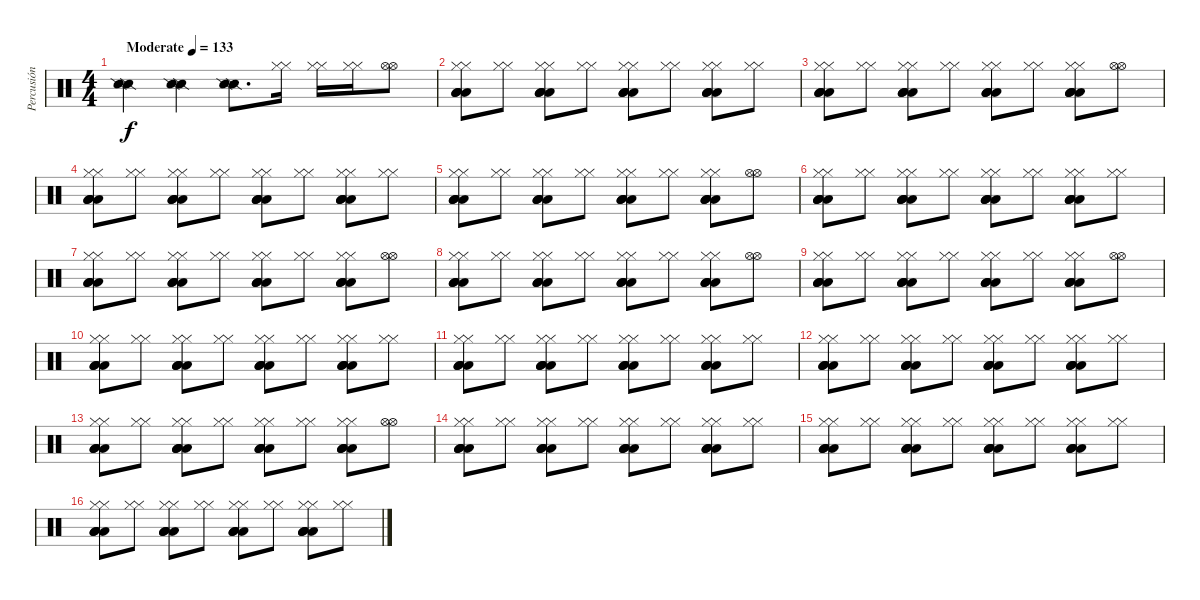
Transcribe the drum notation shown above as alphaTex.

\track ("Percusión" "Percusión") {instrument percussion}
\staff {score}
\articulation defaults
\ts (4 4)
\tempo (133 "Moderate")
\clef neutral
\ks c
("Snare (side stick) 2" "Snare (side stick) 2").4{dy f} ("Snare (side stick) 2" "Snare (side stick) 2").4 ("Snare (side stick) 2" "Snare (side stick) 2").8{d} ("Hi-Hat (closed)" "Hi-Hat (closed)").16 ("Hi-Hat (closed)" "Hi-Hat (closed)").16 ("Hi-Hat (closed)" "Hi-Hat (closed)").16 ("Hi-Hat (open)" "Hi-Hat (open)").8 |
("Hi-Hat (closed)" "Hi-Hat (closed)" "Low Tom (hit)" "Low Tom (hit)" "Low Tom (hit)" "Low Tom (hit)").8 ("Hi-Hat (closed)" "Hi-Hat (closed)").8 ("Hi-Hat (closed)" "Hi-Hat (closed)" "Low Tom (hit)" "Low Tom (hit)" "Low Tom (hit)" "Low Tom (hit)").8 ("Hi-Hat (closed)" "Hi-Hat (closed)").8 ("Hi-Hat (closed)" "Hi-Hat (closed)" "Low Tom (hit)" "Low Tom (hit)" "Low Tom (hit)" "Low Tom (hit)").8 ("Hi-Hat (closed)" "Hi-Hat (closed)").8 ("Hi-Hat (closed)" "Hi-Hat (closed)" "Low Tom (hit)" "Low Tom (hit)" "Low Tom (hit)" "Low Tom (hit)").8 ("Hi-Hat (closed)" "Hi-Hat (closed)").8 |
("Hi-Hat (closed)" "Hi-Hat (closed)" "Low Tom (hit)" "Low Tom (hit)" "Low Tom (hit)" "Low Tom (hit)").8 ("Hi-Hat (closed)" "Hi-Hat (closed)").8 ("Hi-Hat (closed)" "Hi-Hat (closed)" "Low Tom (hit)" "Low Tom (hit)" "Low Tom (hit)" "Low Tom (hit)").8 ("Hi-Hat (closed)" "Hi-Hat (closed)").8 ("Hi-Hat (closed)" "Hi-Hat (closed)" "Low Tom (hit)" "Low Tom (hit)" "Low Tom (hit)" "Low Tom (hit)").8 ("Hi-Hat (closed)" "Hi-Hat (closed)").8 ("Hi-Hat (closed)" "Hi-Hat (closed)" "Low Tom (hit)" "Low Tom (hit)" "Low Tom (hit)" "Low Tom (hit)").8 ("Hi-Hat (open)" "Hi-Hat (open)").8 |
("Hi-Hat (closed)" "Hi-Hat (closed)" "Low Tom (hit)" "Low Tom (hit)" "Low Tom (hit)" "Low Tom (hit)").8 ("Hi-Hat (closed)" "Hi-Hat (closed)").8 ("Hi-Hat (closed)" "Hi-Hat (closed)" "Low Tom (hit)" "Low Tom (hit)" "Low Tom (hit)" "Low Tom (hit)").8 ("Hi-Hat (closed)" "Hi-Hat (closed)").8 ("Hi-Hat (closed)" "Hi-Hat (closed)" "Low Tom (hit)" "Low Tom (hit)" "Low Tom (hit)" "Low Tom (hit)").8 ("Hi-Hat (closed)" "Hi-Hat (closed)").8 ("Hi-Hat (closed)" "Hi-Hat (closed)" "Low Tom (hit)" "Low Tom (hit)" "Low Tom (hit)" "Low Tom (hit)").8 ("Hi-Hat (closed)" "Hi-Hat (closed)").8 |
("Hi-Hat (closed)" "Hi-Hat (closed)" "Low Tom (hit)" "Low Tom (hit)" "Low Tom (hit)" "Low Tom (hit)").8 ("Hi-Hat (closed)" "Hi-Hat (closed)").8 ("Hi-Hat (closed)" "Hi-Hat (closed)" "Low Tom (hit)" "Low Tom (hit)" "Low Tom (hit)" "Low Tom (hit)").8 ("Hi-Hat (closed)" "Hi-Hat (closed)").8 ("Hi-Hat (closed)" "Hi-Hat (closed)" "Low Tom (hit)" "Low Tom (hit)" "Low Tom (hit)" "Low Tom (hit)").8 ("Hi-Hat (closed)" "Hi-Hat (closed)").8 ("Hi-Hat (closed)" "Hi-Hat (closed)" "Low Tom (hit)" "Low Tom (hit)" "Low Tom (hit)" "Low Tom (hit)").8 ("Hi-Hat (open)" "Hi-Hat (open)").8 |
("Hi-Hat (closed)" "Hi-Hat (closed)" "Low Tom (hit)" "Low Tom (hit)" "Low Tom (hit)" "Low Tom (hit)").8 ("Hi-Hat (closed)" "Hi-Hat (closed)").8 ("Hi-Hat (closed)" "Hi-Hat (closed)" "Low Tom (hit)" "Low Tom (hit)" "Low Tom (hit)" "Low Tom (hit)").8 ("Hi-Hat (closed)" "Hi-Hat (closed)").8 ("Hi-Hat (closed)" "Hi-Hat (closed)" "Low Tom (hit)" "Low Tom (hit)" "Low Tom (hit)" "Low Tom (hit)").8 ("Hi-Hat (closed)" "Hi-Hat (closed)").8 ("Hi-Hat (closed)" "Hi-Hat (closed)" "Low Tom (hit)" "Low Tom (hit)" "Low Tom (hit)" "Low Tom (hit)").8 ("Hi-Hat (closed)" "Hi-Hat (closed)").8 |
("Hi-Hat (closed)" "Hi-Hat (closed)" "Low Tom (hit)" "Low Tom (hit)" "Low Tom (hit)" "Low Tom (hit)").8 ("Hi-Hat (closed)" "Hi-Hat (closed)").8 ("Hi-Hat (closed)" "Hi-Hat (closed)" "Low Tom (hit)" "Low Tom (hit)" "Low Tom (hit)" "Low Tom (hit)").8 ("Hi-Hat (closed)" "Hi-Hat (closed)").8 ("Hi-Hat (closed)" "Hi-Hat (closed)" "Low Tom (hit)" "Low Tom (hit)" "Low Tom (hit)" "Low Tom (hit)").8 ("Hi-Hat (closed)" "Hi-Hat (closed)").8 ("Hi-Hat (closed)" "Hi-Hat (closed)" "Low Tom (hit)" "Low Tom (hit)" "Low Tom (hit)" "Low Tom (hit)").8 ("Hi-Hat (open)" "Hi-Hat (open)").8 |
("Hi-Hat (closed)" "Hi-Hat (closed)" "Low Tom (hit)" "Low Tom (hit)" "Low Tom (hit)" "Low Tom (hit)").8 ("Hi-Hat (closed)" "Hi-Hat (closed)").8 ("Hi-Hat (closed)" "Hi-Hat (closed)" "Low Tom (hit)" "Low Tom (hit)" "Low Tom (hit)" "Low Tom (hit)").8 ("Hi-Hat (closed)" "Hi-Hat (closed)").8 ("Hi-Hat (closed)" "Hi-Hat (closed)" "Low Tom (hit)" "Low Tom (hit)" "Low Tom (hit)" "Low Tom (hit)").8 ("Hi-Hat (closed)" "Hi-Hat (closed)").8 ("Hi-Hat (closed)" "Hi-Hat (closed)" "Low Tom (hit)" "Low Tom (hit)" "Low Tom (hit)" "Low Tom (hit)").8 ("Hi-Hat (open)" "Hi-Hat (open)").8 |
("Hi-Hat (closed)" "Hi-Hat (closed)" "Low Tom (hit)" "Low Tom (hit)" "Low Tom (hit)" "Low Tom (hit)").8 ("Hi-Hat (closed)" "Hi-Hat (closed)").8 ("Hi-Hat (closed)" "Hi-Hat (closed)" "Low Tom (hit)" "Low Tom (hit)" "Low Tom (hit)" "Low Tom (hit)").8 ("Hi-Hat (closed)" "Hi-Hat (closed)").8 ("Hi-Hat (closed)" "Hi-Hat (closed)" "Low Tom (hit)" "Low Tom (hit)" "Low Tom (hit)" "Low Tom (hit)").8 ("Hi-Hat (closed)" "Hi-Hat (closed)").8 ("Hi-Hat (closed)" "Hi-Hat (closed)" "Low Tom (hit)" "Low Tom (hit)" "Low Tom (hit)" "Low Tom (hit)").8 ("Hi-Hat (open)" "Hi-Hat (open)").8 |
("Hi-Hat (closed)" "Hi-Hat (closed)" "Low Tom (hit)" "Low Tom (hit)" "Low Tom (hit)" "Low Tom (hit)").8 ("Hi-Hat (closed)" "Hi-Hat (closed)").8 ("Hi-Hat (closed)" "Hi-Hat (closed)" "Low Tom (hit)" "Low Tom (hit)" "Low Tom (hit)" "Low Tom (hit)").8 ("Hi-Hat (closed)" "Hi-Hat (closed)").8 ("Hi-Hat (closed)" "Hi-Hat (closed)" "Low Tom (hit)" "Low Tom (hit)" "Low Tom (hit)" "Low Tom (hit)").8 ("Hi-Hat (closed)" "Hi-Hat (closed)").8 ("Hi-Hat (closed)" "Hi-Hat (closed)" "Low Tom (hit)" "Low Tom (hit)" "Low Tom (hit)" "Low Tom (hit)").8 ("Hi-Hat (closed)" "Hi-Hat (closed)").8 |
("Hi-Hat (closed)" "Hi-Hat (closed)" "Low Tom (hit)" "Low Tom (hit)" "Low Tom (hit)" "Low Tom (hit)").8 ("Hi-Hat (closed)" "Hi-Hat (closed)").8 ("Hi-Hat (closed)" "Hi-Hat (closed)" "Low Tom (hit)" "Low Tom (hit)" "Low Tom (hit)" "Low Tom (hit)").8 ("Hi-Hat (closed)" "Hi-Hat (closed)").8 ("Hi-Hat (closed)" "Hi-Hat (closed)" "Low Tom (hit)" "Low Tom (hit)" "Low Tom (hit)" "Low Tom (hit)").8 ("Hi-Hat (closed)" "Hi-Hat (closed)").8 ("Hi-Hat (closed)" "Hi-Hat (closed)" "Low Tom (hit)" "Low Tom (hit)" "Low Tom (hit)" "Low Tom (hit)").8 ("Hi-Hat (closed)" "Hi-Hat (closed)").8 |
("Hi-Hat (closed)" "Hi-Hat (closed)" "Low Tom (hit)" "Low Tom (hit)" "Low Tom (hit)" "Low Tom (hit)").8 ("Hi-Hat (closed)" "Hi-Hat (closed)").8 ("Hi-Hat (closed)" "Hi-Hat (closed)" "Low Tom (hit)" "Low Tom (hit)" "Low Tom (hit)" "Low Tom (hit)").8 ("Hi-Hat (closed)" "Hi-Hat (closed)").8 ("Hi-Hat (closed)" "Hi-Hat (closed)" "Low Tom (hit)" "Low Tom (hit)" "Low Tom (hit)" "Low Tom (hit)").8 ("Hi-Hat (closed)" "Hi-Hat (closed)").8 ("Hi-Hat (closed)" "Hi-Hat (closed)" "Low Tom (hit)" "Low Tom (hit)" "Low Tom (hit)" "Low Tom (hit)").8 ("Hi-Hat (closed)" "Hi-Hat (closed)").8 |
("Hi-Hat (closed)" "Hi-Hat (closed)" "Low Tom (hit)" "Low Tom (hit)" "Low Tom (hit)" "Low Tom (hit)").8 ("Hi-Hat (closed)" "Hi-Hat (closed)").8 ("Hi-Hat (closed)" "Hi-Hat (closed)" "Low Tom (hit)" "Low Tom (hit)" "Low Tom (hit)" "Low Tom (hit)").8 ("Hi-Hat (closed)" "Hi-Hat (closed)").8 ("Hi-Hat (closed)" "Hi-Hat (closed)" "Low Tom (hit)" "Low Tom (hit)" "Low Tom (hit)" "Low Tom (hit)").8 ("Hi-Hat (closed)" "Hi-Hat (closed)").8 ("Hi-Hat (closed)" "Hi-Hat (closed)" "Low Tom (hit)" "Low Tom (hit)" "Low Tom (hit)" "Low Tom (hit)").8 ("Hi-Hat (open)" "Hi-Hat (open)").8 |
("Hi-Hat (closed)" "Hi-Hat (closed)" "Low Tom (hit)" "Low Tom (hit)" "Low Tom (hit)" "Low Tom (hit)").8 ("Hi-Hat (closed)" "Hi-Hat (closed)").8 ("Hi-Hat (closed)" "Hi-Hat (closed)" "Low Tom (hit)" "Low Tom (hit)" "Low Tom (hit)" "Low Tom (hit)").8 ("Hi-Hat (closed)" "Hi-Hat (closed)").8 ("Hi-Hat (closed)" "Hi-Hat (closed)" "Low Tom (hit)" "Low Tom (hit)" "Low Tom (hit)" "Low Tom (hit)").8 ("Hi-Hat (closed)" "Hi-Hat (closed)").8 ("Hi-Hat (closed)" "Hi-Hat (closed)" "Low Tom (hit)" "Low Tom (hit)" "Low Tom (hit)" "Low Tom (hit)").8 ("Hi-Hat (closed)" "Hi-Hat (closed)").8 |
("Hi-Hat (closed)" "Hi-Hat (closed)" "Low Tom (hit)" "Low Tom (hit)" "Low Tom (hit)" "Low Tom (hit)").8 ("Hi-Hat (closed)" "Hi-Hat (closed)").8 ("Hi-Hat (closed)" "Hi-Hat (closed)" "Low Tom (hit)" "Low Tom (hit)" "Low Tom (hit)" "Low Tom (hit)").8 ("Hi-Hat (closed)" "Hi-Hat (closed)").8 ("Hi-Hat (closed)" "Hi-Hat (closed)" "Low Tom (hit)" "Low Tom (hit)" "Low Tom (hit)" "Low Tom (hit)").8 ("Hi-Hat (closed)" "Hi-Hat (closed)").8 ("Hi-Hat (closed)" "Hi-Hat (closed)" "Low Tom (hit)" "Low Tom (hit)" "Low Tom (hit)" "Low Tom (hit)").8 ("Hi-Hat (closed)" "Hi-Hat (closed)").8 |
("Hi-Hat (closed)" "Hi-Hat (closed)" "Low Tom (hit)" "Low Tom (hit)" "Low Tom (hit)" "Low Tom (hit)").8 ("Hi-Hat (closed)" "Hi-Hat (closed)").8 ("Hi-Hat (closed)" "Hi-Hat (closed)" "Low Tom (hit)" "Low Tom (hit)" "Low Tom (hit)" "Low Tom (hit)").8 ("Hi-Hat (closed)" "Hi-Hat (closed)").8 ("Hi-Hat (closed)" "Hi-Hat (closed)" "Low Tom (hit)" "Low Tom (hit)" "Low Tom (hit)" "Low Tom (hit)").8 ("Hi-Hat (closed)" "Hi-Hat (closed)").8 ("Hi-Hat (closed)" "Hi-Hat (closed)" "Low Tom (hit)" "Low Tom (hit)" "Low Tom (hit)" "Low Tom (hit)").8 ("Hi-Hat (closed)" "Hi-Hat (closed)").8
